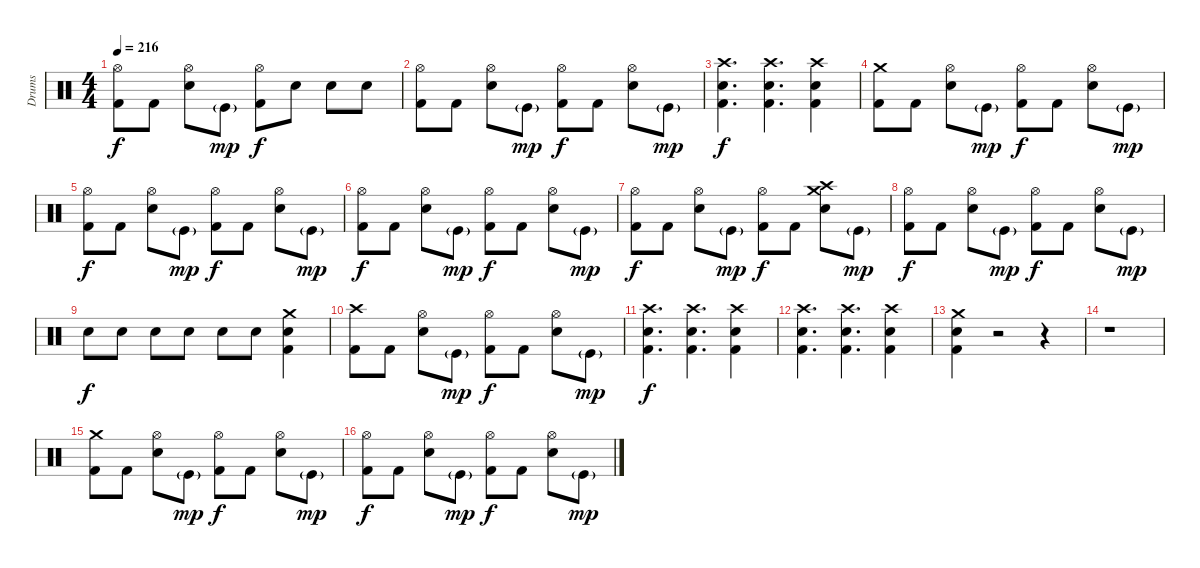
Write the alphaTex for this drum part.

\track ("Drums" "Drums") {instrument percussion}
\staff {score}
\articulation defaults
\ts (4 4)
\tempo 216
\clef neutral
\ks c
("Hi-Hat (open)" "Kick (hit) 2").8{dy f} "Kick (hit) 2".8 ("Hi-Hat (open)" "Snare (hit) 2").8 "Kick (hit)"{g}.8{dy mp} ("Hi-Hat (open)" "Kick (hit) 2").8{dy f} "Electric Snare (hit)".8 "Electric Snare (hit)".8 "Electric Snare (hit)".8 |
("Hi-Hat (open)" "Kick (hit) 2").8 "Kick (hit) 2".8 ("Hi-Hat (open)" "Snare (hit) 2").8 "Kick (hit)"{g}.8{dy mp} ("Hi-Hat (open)" "Kick (hit) 2").8{dy f} "Kick (hit) 2".8 ("Hi-Hat (open)" "Snare (hit) 2").8 "Kick (hit)"{g}.8{dy mp} |
("Crash high (hit)" "Snare (hit) 2" "Kick (hit) 2").4{d dy f} ("Crash high (hit)" "Snare (hit) 2" "Kick (hit) 2").4{d} ("Crash high (hit)" "Snare (hit) 2" "Kick (hit) 2").4 |
("Crash medium (hit)" "Kick (hit) 2").8 "Kick (hit) 2".8 ("Hi-Hat (open)" "Snare (hit) 2").8 "Kick (hit)"{g}.8{dy mp} ("Hi-Hat (open)" "Kick (hit) 2").8{dy f} "Kick (hit) 2".8 ("Hi-Hat (open)" "Snare (hit) 2").8 "Kick (hit)"{g}.8{dy mp} |
("Hi-Hat (open)" "Kick (hit) 2").8{dy f} "Kick (hit) 2".8 ("Hi-Hat (open)" "Snare (hit) 2").8 "Kick (hit)"{g}.8{dy mp} ("Hi-Hat (open)" "Kick (hit) 2").8{dy f} "Kick (hit) 2".8 ("Hi-Hat (open)" "Snare (hit) 2").8 "Kick (hit)"{g}.8{dy mp} |
("Hi-Hat (open)" "Kick (hit) 2").8{dy f} "Kick (hit) 2".8 ("Hi-Hat (open)" "Snare (hit) 2").8 "Kick (hit)"{g}.8{dy mp} ("Hi-Hat (open)" "Kick (hit) 2").8{dy f} "Kick (hit) 2".8 ("Hi-Hat (open)" "Snare (hit) 2").8 "Kick (hit)"{g}.8{dy mp} |
("Hi-Hat (open)" "Kick (hit) 2").8{dy f} "Kick (hit) 2".8 ("Hi-Hat (open)" "Snare (hit) 2").8 "Kick (hit)"{g}.8{dy mp} ("Hi-Hat (open)" "Kick (hit) 2").8{dy f} "Kick (hit) 2".8 ("Crash medium (hit)" "Crash high (hit)" "Snare (hit) 2").8 "Kick (hit)"{g}.8{dy mp} |
("Hi-Hat (open)" "Kick (hit) 2").8{dy f} "Kick (hit) 2".8 ("Hi-Hat (open)" "Snare (hit) 2").8 "Kick (hit)"{g}.8{dy mp} ("Hi-Hat (open)" "Kick (hit) 2").8{dy f} "Kick (hit) 2".8 ("Hi-Hat (open)" "Snare (hit) 2").8 "Kick (hit)"{g}.8{dy mp} |
"Electric Snare (hit)".8{dy f} "Electric Snare (hit)".8 "Electric Snare (hit)".8 "Electric Snare (hit)".8 "Electric Snare (hit)".8 "Electric Snare (hit)".8 ("Crash medium (hit)" "Snare (hit) 2" "Kick (hit) 2").4 |
("Crash high (hit)" "Kick (hit) 2").8 "Kick (hit) 2".8 ("Hi-Hat (open)" "Snare (hit) 2").8 "Kick (hit)"{g}.8{dy mp} ("Hi-Hat (open)" "Kick (hit) 2").8{dy f} "Kick (hit) 2".8 ("Hi-Hat (open)" "Snare (hit) 2").8 "Kick (hit)"{g}.8{dy mp} |
("Crash high (hit)" "Snare (hit) 2" "Kick (hit) 2").4{d dy f} ("Crash high (hit)" "Snare (hit) 2" "Kick (hit) 2").4{d} ("Crash high (hit)" "Snare (hit) 2" "Kick (hit) 2").4 |
("Crash high (hit)" "Snare (hit) 2" "Kick (hit) 2").4{d} ("Crash high (hit)" "Snare (hit) 2" "Kick (hit) 2").4{d} ("Crash high (hit)" "Snare (hit) 2" "Kick (hit) 2").4 |
("Crash medium (hit)" "Snare (hit) 2" "Kick (hit) 2").4 r.2 r.4 |
r.1 |
("Crash medium (hit)" "Kick (hit) 2").8 "Kick (hit) 2".8 ("Hi-Hat (open)" "Snare (hit) 2").8 "Kick (hit)"{g}.8{dy mp} ("Hi-Hat (open)" "Kick (hit) 2").8{dy f} "Kick (hit) 2".8 ("Hi-Hat (open)" "Snare (hit) 2").8 "Kick (hit)"{g}.8{dy mp} |
("Hi-Hat (open)" "Kick (hit) 2").8{dy f} "Kick (hit) 2".8 ("Hi-Hat (open)" "Snare (hit) 2").8 "Kick (hit)"{g}.8{dy mp} ("Hi-Hat (open)" "Kick (hit) 2").8{dy f} "Kick (hit) 2".8 ("Hi-Hat (open)" "Snare (hit) 2").8 "Kick (hit)"{g}.8{dy mp}
